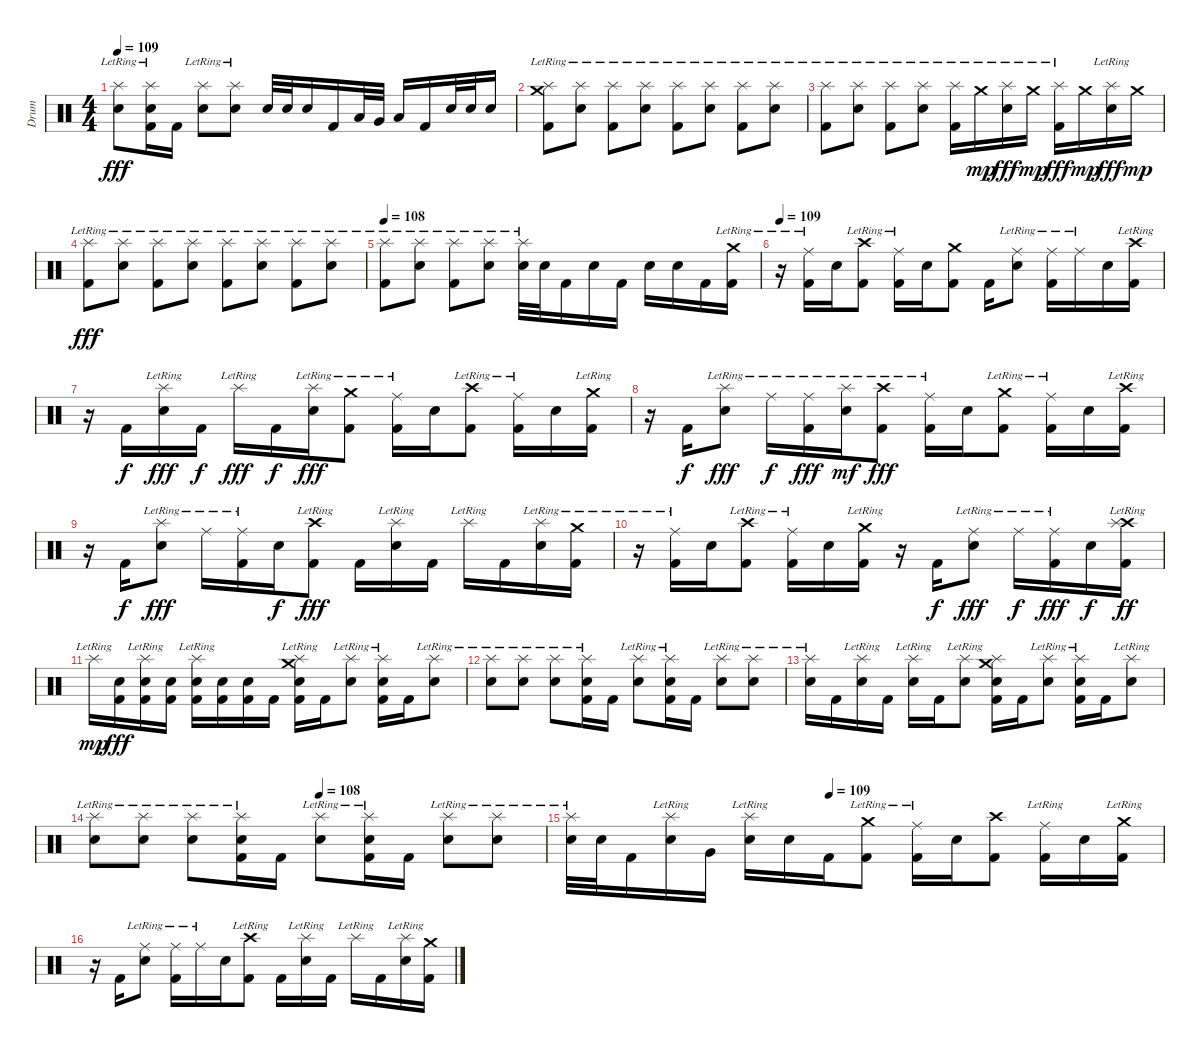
\track ("Drum" "Drum") {instrument percussion}
\staff {score}
\articulation defaults
\ts (4 4)
\tempo 109
\clef neutral
\ks c
("Splash (hit)"{lr} "Electric Snare (hit)").8{dy fff} ("Splash (hit)"{lr} "Electric Snare (hit)" "Kick (hit) 2").16 "Kick (hit) 2".16 ("Splash (hit)"{lr} "Electric Snare (hit)").8 ("Splash (hit)"{lr} "Electric Snare (hit)").8 "Electric Snare (hit)".32 "Electric Snare (hit)".32 "Electric Snare (hit)".16 "Kick (hit) 2".16 "Low Tom (hit)".32 "Very Low Tom (hit)".32 "Low Floor Tom (hit)".16 "Kick (hit) 2".16 "Electric Snare (hit)".32 "Electric Snare (hit)".32 "Electric Snare (hit)".16 |
("Crash medium (hit)"{lr} "Splash (hit)"{lr} "Kick (hit) 2").8 ("Splash (hit)"{lr} "Electric Snare (hit)").8 ("Splash (hit)"{lr} "Kick (hit) 2").8 ("Splash (hit)"{lr} "Electric Snare (hit)").8 ("Splash (hit)"{lr} "Kick (hit) 2").8 ("Splash (hit)"{lr} "Electric Snare (hit)").8 ("Splash (hit)"{lr} "Kick (hit) 2").8 ("Splash (hit)"{lr} "Electric Snare (hit)").8 |
("Splash (hit)"{lr} "Kick (hit) 2").8 ("Splash (hit)"{lr} "Electric Snare (hit)").8 ("Splash (hit)"{lr} "Kick (hit) 2").8 ("Splash (hit)"{lr} "Electric Snare (hit)").8 ("Splash (hit)"{lr} "Kick (hit) 2").16 "Crash medium (hit)"{lr}.16{dy mp} ("Splash (hit)"{lr} "Electric Snare (hit)").16{dy fff} "Crash medium (hit)"{lr}.16{dy mp} ("Splash (hit)"{lr} "Kick (hit) 2").16{dy fff} "Crash medium (hit)".16{dy mp} ("Splash (hit)"{lr} "Electric Snare (hit)").16{dy fff} "Crash medium (hit)"{lr}.16{dy mp} |
("Splash (hit)"{lr} "Kick (hit) 2").8{dy fff} ("Splash (hit)"{lr} "Electric Snare (hit)").8 ("Splash (hit)"{lr} "Kick (hit) 2").8 ("Splash (hit)"{lr} "Electric Snare (hit)").8 ("Splash (hit)"{lr} "Kick (hit) 2").8 ("Splash (hit)"{lr} "Electric Snare (hit)").8 ("Splash (hit)"{lr} "Kick (hit) 2").8 ("Splash (hit)"{lr} "Electric Snare (hit)").8 |
\tempo 108
("Splash (hit)"{lr} "Kick (hit) 2").8 ("Splash (hit)"{lr} "Electric Snare (hit)").8 ("Splash (hit)"{lr} "Kick (hit) 2").8 ("Splash (hit)"{lr} "Electric Snare (hit)").8 ("Splash (hit)"{lr} "Electric Snare (hit)").32 "Electric Snare (hit)".32 "Kick (hit) 2".16 "Electric Snare (hit)".16 "Kick (hit) 2".16 "Electric Snare (hit)".16 "Electric Snare (hit)".16 "Kick (hit) 2".16 ("Crash medium (hit)"{lr} "Kick (hit) 2").16 |
\tempo 109
r.16 ("Ride (middle)"{lr} "Kick (hit) 2").16 "Electric Snare (hit)".16 ("Crash high (hit)"{lr} "Kick (hit) 2").8 ("Ride (middle)"{lr} "Kick (hit) 2").16 "Electric Snare (hit)".16 ("Crash medium (hit)" "Kick (hit) 2").8 "Kick (hit) 2".16 ("Ride (middle)"{lr} "Electric Snare (hit)").8 ("Ride (middle)"{lr} "Kick (hit) 2").16 "Ride (middle)"{lr}.16 "Electric Snare (hit)".16 ("Crash high (hit)"{lr} "Kick (hit) 2").16 |
r.16 "Kick (hit) 2".16{dy f} ("Splash (hit)"{lr} "Electric Snare (hit)").16{dy fff} "Kick (hit) 2".16{dy f} "Splash (hit)"{lr}.16{dy fff} "Kick (hit) 2".16{dy f} ("Splash (hit)"{lr} "Electric Snare (hit)").16{dy fff} ("Crash medium (hit)"{lr} "Kick (hit) 2").8 ("Ride (middle)"{lr} "Kick (hit) 2").16 "Electric Snare (hit)".16 ("Crash high (hit)"{lr} "Kick (hit) 2").8 ("Ride (middle)"{lr} "Kick (hit) 2").16 "Electric Snare (hit)".16 ("Crash medium (hit)"{lr} "Kick (hit) 2").16 |
r.16 "Kick (hit) 2".16{dy f} ("Splash (hit)"{lr} "Electric Snare (hit)").8{dy fff} "Ride (middle)"{lr}.16{dy f} ("Ride (middle)"{lr} "Kick (hit) 2").16{dy fff} ("Splash (hit)"{lr} "Electric Snare (hit)").16{dy mf} ("Crash high (hit)"{lr} "Kick (hit) 2").8{dy fff} ("Ride (middle)"{lr} "Kick (hit) 2").16 "Electric Snare (hit)".16 ("Crash medium (hit)"{lr} "Kick (hit) 2").8 ("Ride (middle)"{lr} "Kick (hit) 2").16 "Electric Snare (hit)".16 ("Crash high (hit)"{lr} "Kick (hit) 2").16 |
r.16 "Kick (hit) 2".16{dy f} ("Splash (hit)"{lr} "Electric Snare (hit)").8{dy fff} "Ride (middle)"{lr}.16 ("Ride (middle)"{lr} "Kick (hit) 2").16 "Electric Snare (hit)".16{dy f} ("Crash high (hit)"{lr} "Kick (hit) 2").8{dy fff} "Kick (hit) 2".16 ("Splash (hit)"{lr} "Electric Snare (hit)").16 "Kick (hit) 2".16 "Splash (hit)"{lr}.16 "Kick (hit) 2".16 ("Splash (hit)"{lr} "Electric Snare (hit)").16 ("Crash medium (hit)"{lr} "Kick (hit) 2").16 |
r.16 ("Ride (middle)"{lr} "Kick (hit) 2").16 "Electric Snare (hit)".16 ("Crash high (hit)"{lr} "Kick (hit) 2").8 ("Ride (middle)"{lr} "Kick (hit) 2").16 "Electric Snare (hit)".16 ("Crash medium (hit)"{lr} "Kick (hit) 2").16 r.16 "Kick (hit) 2".16{dy f} ("Ride (middle)"{lr} "Electric Snare (hit)").8{dy fff} "Ride (middle)"{lr}.16{dy f} ("Ride (middle)"{lr} "Kick (hit) 2").16{dy fff} "Electric Snare (hit)".16{dy f} ("Crash high (hit)"{lr} "Splash (hit)"{lr} "Kick (hit) 2").16{dy ff} |
"Splash (hit)"{lr}.16{dy mp} ("Electric Snare (hit)" "Kick (hit) 2").16{dy fff} ("Splash (hit)"{lr} "Electric Snare (hit)" "Kick (hit) 2").16 ("Electric Snare (hit)" "Kick (hit) 2").16 ("Splash (hit)"{lr} "Electric Snare (hit)" "Kick (hit) 2").16 ("Electric Snare (hit)" "Kick (hit) 2").16 ("Electric Snare (hit)" "Kick (hit) 2").16 "Kick (hit) 2".16 ("Crash medium (hit)"{lr} "Splash (hit)"{lr} "Electric Snare (hit)" "Kick (hit) 2").16 "Kick (hit) 2".16 ("Splash (hit)"{lr} "Electric Snare (hit)").8 ("Splash (hit)"{lr} "Electric Snare (hit)" "Kick (hit) 2").16 "Kick (hit) 2".16 ("Splash (hit)"{lr} "Electric Snare (hit)").8 |
("Splash (hit)"{lr} "Electric Snare (hit)").8 ("Splash (hit)"{lr} "Electric Snare (hit)").8 ("Splash (hit)"{lr} "Electric Snare (hit)").8 ("Splash (hit)"{lr} "Electric Snare (hit)" "Kick (hit) 2").16 "Kick (hit) 2".16 ("Splash (hit)"{lr} "Electric Snare (hit)").8 ("Splash (hit)"{lr} "Electric Snare (hit)" "Kick (hit) 2").16 "Kick (hit) 2".16 ("Splash (hit)"{lr} "Electric Snare (hit)").8 ("Splash (hit)"{lr} "Electric Snare (hit)").8 |
("Splash (hit)"{lr} "Electric Snare (hit)").16 "Kick (hit) 2".16 ("Splash (hit)"{lr} "Electric Snare (hit)").16 "Kick (hit) 2".16 ("Splash (hit)"{lr} "Electric Snare (hit)").16 "Kick (hit) 2".16 ("Splash (hit)"{lr} "Electric Snare (hit)").8 ("Crash medium (hit)"{lr} "Splash (hit)"{lr} "Electric Snare (hit)" "Kick (hit) 2").16 "Kick (hit) 2".16 ("Splash (hit)"{lr} "Electric Snare (hit)").8 ("Splash (hit)"{lr} "Electric Snare (hit)" "Kick (hit) 2").16 "Kick (hit) 2".16 ("Splash (hit)"{lr} "Electric Snare (hit)").8 |
\tempo (108 0.5)
("Splash (hit)"{lr} "Electric Snare (hit)").8 ("Splash (hit)"{lr} "Electric Snare (hit)").8 ("Splash (hit)"{lr} "Electric Snare (hit)").8 ("Splash (hit)"{lr} "Electric Snare (hit)" "Kick (hit) 2").16 "Kick (hit) 2".16 ("Splash (hit)"{lr} "Electric Snare (hit)").8 ("Splash (hit)"{lr} "Electric Snare (hit)" "Kick (hit) 2").16 "Kick (hit) 2".16 ("Splash (hit)"{lr} "Electric Snare (hit)").8 ("Splash (hit)"{lr} "Electric Snare (hit)").8 |
\tempo (109 0.4375)
("Splash (hit)"{lr} "Electric Snare (hit)").32 "Electric Snare (hit)".32 "Kick (hit) 2".16 ("Splash (hit)"{lr} "Electric Snare (hit)").16 "Very Low Tom (hit)".16 ("Splash (hit)"{lr} "Electric Snare (hit)").16 "Electric Snare (hit)".16 "Kick (hit) 2".16 ("Crash medium (hit)"{lr} "Kick (hit) 2").8 ("Ride (middle)"{lr} "Kick (hit) 2").16 "Electric Snare (hit)".16 ("Crash high (hit)" "Kick (hit) 2").8 ("Ride (middle)"{lr} "Kick (hit) 2").16 "Electric Snare (hit)".16 ("Crash medium (hit)"{lr} "Kick (hit) 2").16 |
r.16 "Kick (hit) 2".16 ("Ride (middle)"{lr} "Electric Snare (hit)").8 ("Ride (middle)"{lr} "Kick (hit) 2").16 "Ride (middle)"{lr}.16 "Electric Snare (hit)".16 ("Crash high (hit)"{lr} "Kick (hit) 2").8 "Kick (hit) 2".16 ("Splash (hit)"{lr} "Electric Snare (hit)").16 "Kick (hit) 2".16 "Splash (hit)"{lr}.16 "Kick (hit) 2".16 ("Splash (hit)"{lr} "Electric Snare (hit)").16 ("Crash medium (hit)"{lr} "Kick (hit) 2").16
